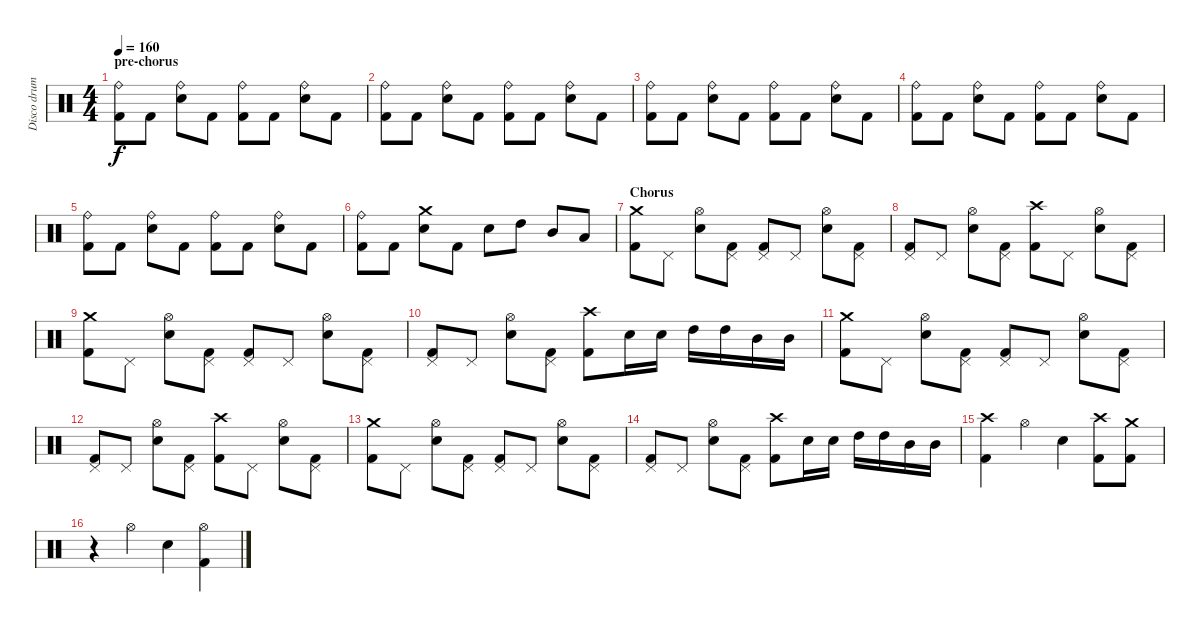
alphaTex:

\track ("Disco drum" "Disco drum") {instrument percussion}
\staff {score}
\articulation defaults
\ts (4 4)
\section ("" "pre-chorus")
\tempo 160
\clef neutral
\ks c
("Ride (bell)" "Kick (hit) 2").8{dy f} "Kick (hit) 2".8 ("Ride (bell)" "Electric Snare (hit)").8 "Kick (hit) 2".8 ("Ride (bell)" "Kick (hit) 2").8 "Kick (hit) 2".8 ("Ride (bell)" "Electric Snare (hit)").8 "Kick (hit) 2".8 |
("Ride (bell)" "Kick (hit) 2").8 "Kick (hit) 2".8 ("Ride (bell)" "Electric Snare (hit)").8 "Kick (hit) 2".8 ("Ride (bell)" "Kick (hit) 2").8 "Kick (hit) 2".8 ("Ride (bell)" "Electric Snare (hit)").8 "Kick (hit) 2".8 |
("Ride (bell)" "Kick (hit) 2").8 "Kick (hit) 2".8 ("Ride (bell)" "Electric Snare (hit)").8 "Kick (hit) 2".8 ("Ride (bell)" "Kick (hit) 2").8 "Kick (hit) 2".8 ("Ride (bell)" "Electric Snare (hit)").8 "Kick (hit) 2".8 |
("Ride (bell)" "Kick (hit) 2").8 "Kick (hit) 2".8 ("Ride (bell)" "Electric Snare (hit)").8 "Kick (hit) 2".8 ("Ride (bell)" "Kick (hit) 2").8 "Kick (hit) 2".8 ("Ride (bell)" "Electric Snare (hit)").8 "Kick (hit) 2".8 |
("Ride (bell)" "Kick (hit) 2").8 "Kick (hit) 2".8 ("Ride (bell)" "Electric Snare (hit)").8 "Kick (hit) 2".8 ("Ride (bell)" "Kick (hit) 2").8 "Kick (hit) 2".8 ("Ride (bell)" "Electric Snare (hit)").8 "Kick (hit) 2".8 |
("Ride (bell)" "Kick (hit) 2").8 "Kick (hit) 2".8 ("Crash medium (hit)" "Electric Snare (hit)").8 "Kick (hit) 2".8 "Electric Snare (hit)".8 "High Tom (hit)".8 "Mid Tom (hit)".8 "Low Tom (hit)".8 |
\section ("" "Chorus")
("Crash medium (hit)" "Kick (hit) 2").8 "Pedal Hi-Hat (hit)".8 ("Hi-Hat (open)" "Electric Snare (hit)").8 ("Pedal Hi-Hat (hit)" "Kick (hit) 2").8 ("Pedal Hi-Hat (hit)" "Kick (hit) 2").8 "Pedal Hi-Hat (hit)".8 ("Hi-Hat (open)" "Electric Snare (hit)").8 ("Pedal Hi-Hat (hit)" "Kick (hit) 2").8 |
("Pedal Hi-Hat (hit)" "Kick (hit) 2").8 "Pedal Hi-Hat (hit)".8 ("Hi-Hat (open)" "Electric Snare (hit)").8 ("Pedal Hi-Hat (hit)" "Kick (hit) 2").8 ("Crash high (hit)" "Kick (hit) 2").8 "Pedal Hi-Hat (hit)".8 ("Hi-Hat (open)" "Electric Snare (hit)").8 ("Pedal Hi-Hat (hit)" "Kick (hit) 2").8 |
("Crash medium (hit)" "Kick (hit) 2").8 "Pedal Hi-Hat (hit)".8 ("Hi-Hat (open)" "Electric Snare (hit)").8 ("Pedal Hi-Hat (hit)" "Kick (hit) 2").8 ("Pedal Hi-Hat (hit)" "Kick (hit) 2").8 "Pedal Hi-Hat (hit)".8 ("Hi-Hat (open)" "Electric Snare (hit)").8 ("Pedal Hi-Hat (hit)" "Kick (hit) 2").8 |
("Pedal Hi-Hat (hit)" "Kick (hit) 2").8 "Pedal Hi-Hat (hit)".8 ("Hi-Hat (open)" "Electric Snare (hit)").8 ("Pedal Hi-Hat (hit)" "Kick (hit) 2").8 ("Crash high (hit)" "Kick (hit) 2").8 "Electric Snare (hit)".16 "Electric Snare (hit)".16 "High Tom (hit)".16 "High Tom (hit)".16 "Mid Tom (hit)".16 "Mid Tom (hit)".16 |
("Crash medium (hit)" "Kick (hit) 2").8 "Pedal Hi-Hat (hit)".8 ("Hi-Hat (open)" "Electric Snare (hit)").8 ("Pedal Hi-Hat (hit)" "Kick (hit) 2").8 ("Pedal Hi-Hat (hit)" "Kick (hit) 2").8 "Pedal Hi-Hat (hit)".8 ("Hi-Hat (open)" "Electric Snare (hit)").8 ("Pedal Hi-Hat (hit)" "Kick (hit) 2").8 |
("Pedal Hi-Hat (hit)" "Kick (hit) 2").8 "Pedal Hi-Hat (hit)".8 ("Hi-Hat (open)" "Electric Snare (hit)").8 ("Pedal Hi-Hat (hit)" "Kick (hit) 2").8 ("Crash high (hit)" "Kick (hit) 2").8 "Pedal Hi-Hat (hit)".8 ("Hi-Hat (open)" "Electric Snare (hit)").8 ("Pedal Hi-Hat (hit)" "Kick (hit) 2").8 |
("Crash medium (hit)" "Kick (hit) 2").8 "Pedal Hi-Hat (hit)".8 ("Hi-Hat (open)" "Electric Snare (hit)").8 ("Pedal Hi-Hat (hit)" "Kick (hit) 2").8 ("Pedal Hi-Hat (hit)" "Kick (hit) 2").8 "Pedal Hi-Hat (hit)".8 ("Hi-Hat (open)" "Electric Snare (hit)").8 ("Pedal Hi-Hat (hit)" "Kick (hit) 2").8 |
("Pedal Hi-Hat (hit)" "Kick (hit) 2").8 "Pedal Hi-Hat (hit)".8 ("Hi-Hat (open)" "Electric Snare (hit)").8 ("Pedal Hi-Hat (hit)" "Kick (hit) 2").8 ("Crash high (hit)" "Kick (hit) 2").8 "Electric Snare (hit)".16 "Electric Snare (hit)".16 "High Tom (hit)".16 "High Tom (hit)".16 "Mid Tom (hit)".16 "Mid Tom (hit)".16 |
("Crash high (hit)" "Kick (hit) 2").4 "Hi-Hat (open)".4 "Electric Snare (hit)".4 ("Crash high (hit)" "Kick (hit) 2").8 ("Crash medium (hit)" "Kick (hit) 2").8 |
r.4 "Hi-Hat (open)".4 "Electric Snare (hit)".4 ("Hi-Hat (open)" "Kick (hit) 2").4
